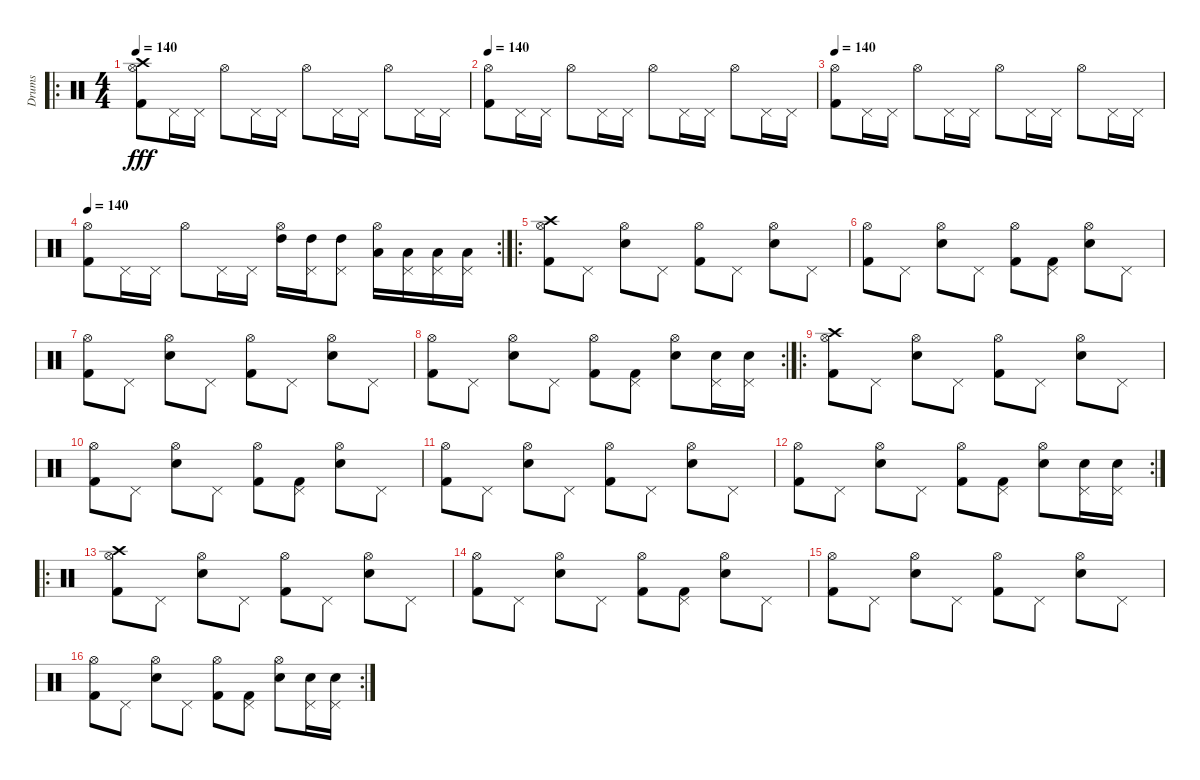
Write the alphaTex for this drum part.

\track ("Drums" "Drums") {instrument percussion}
\staff {score}
\articulation defaults
\ro
\ts (4 4)
\tempo 140
\clef neutral
\ks c
("Hi-Hat (open)" "Kick (hit) 2" "Crash high (hit)").8{dy fff} "Pedal Hi-Hat (hit)".16 "Pedal Hi-Hat (hit)".16 "Hi-Hat (open)".8 "Pedal Hi-Hat (hit)".16 "Pedal Hi-Hat (hit)".16 "Hi-Hat (open)".8 "Pedal Hi-Hat (hit)".16 "Pedal Hi-Hat (hit)".16 "Hi-Hat (open)".8 "Pedal Hi-Hat (hit)".16 "Pedal Hi-Hat (hit)".16 |
\tempo 140
("Hi-Hat (open)" "Kick (hit) 2").8 "Pedal Hi-Hat (hit)".16 "Pedal Hi-Hat (hit)".16 "Hi-Hat (open)".8 "Pedal Hi-Hat (hit)".16 "Pedal Hi-Hat (hit)".16 "Hi-Hat (open)".8 "Pedal Hi-Hat (hit)".16 "Pedal Hi-Hat (hit)".16 "Hi-Hat (open)".8 "Pedal Hi-Hat (hit)".16 "Pedal Hi-Hat (hit)".16 |
\tempo 140
("Hi-Hat (open)" "Kick (hit) 2").8 "Pedal Hi-Hat (hit)".16 "Pedal Hi-Hat (hit)".16 "Hi-Hat (open)".8 "Pedal Hi-Hat (hit)".16 "Pedal Hi-Hat (hit)".16 "Hi-Hat (open)".8 "Pedal Hi-Hat (hit)".16 "Pedal Hi-Hat (hit)".16 "Hi-Hat (open)".8 "Pedal Hi-Hat (hit)".16 "Pedal Hi-Hat (hit)".16 |
\rc 2
\tempo 140
("Hi-Hat (open)" "Kick (hit) 2").8 "Pedal Hi-Hat (hit)".16 "Pedal Hi-Hat (hit)".16 "Hi-Hat (open)".8 "Pedal Hi-Hat (hit)".16 "Pedal Hi-Hat (hit)".16 ("Hi-Hat (open)" "High Tom (hit)").16 ("Pedal Hi-Hat (hit)" "High Tom (hit)").16 ("Pedal Hi-Hat (hit)" "High Tom (hit)").8 ("Hi-Hat (open)" "Low Tom (hit)").16 ("Pedal Hi-Hat (hit)" "Low Tom (hit)").16 ("Pedal Hi-Hat (hit)" "Low Tom (hit)").16 ("Pedal Hi-Hat (hit)" "Low Tom (hit)").16 |
\ro
("Hi-Hat (open)" "Kick (hit) 2" "Crash high (hit)").8 "Pedal Hi-Hat (hit)".8 ("Hi-Hat (open)" "Snare (hit) 2").8 "Pedal Hi-Hat (hit)".8 ("Hi-Hat (open)" "Kick (hit) 2").8 "Pedal Hi-Hat (hit)".8 ("Hi-Hat (open)" "Snare (hit) 2").8 "Pedal Hi-Hat (hit)".8 |
("Hi-Hat (open)" "Kick (hit) 2").8 "Pedal Hi-Hat (hit)".8 ("Hi-Hat (open)" "Snare (hit) 2").8 "Pedal Hi-Hat (hit)".8 ("Hi-Hat (open)" "Kick (hit) 2").8 ("Pedal Hi-Hat (hit)" "Kick (hit) 2").8 ("Hi-Hat (open)" "Snare (hit) 2").8 "Pedal Hi-Hat (hit)".8 |
("Hi-Hat (open)" "Kick (hit) 2").8 "Pedal Hi-Hat (hit)".8 ("Hi-Hat (open)" "Snare (hit) 2").8 "Pedal Hi-Hat (hit)".8 ("Hi-Hat (open)" "Kick (hit) 2").8 "Pedal Hi-Hat (hit)".8 ("Hi-Hat (open)" "Snare (hit) 2").8 "Pedal Hi-Hat (hit)".8 |
\rc 2
("Hi-Hat (open)" "Kick (hit) 2").8 "Pedal Hi-Hat (hit)".8 ("Hi-Hat (open)" "Snare (hit) 2").8 "Pedal Hi-Hat (hit)".8 ("Hi-Hat (open)" "Kick (hit) 2").8 ("Pedal Hi-Hat (hit)" "Kick (hit) 2").8 ("Hi-Hat (open)" "Snare (hit) 2").8 ("Pedal Hi-Hat (hit)" "Snare (hit) 2").16 ("Pedal Hi-Hat (hit)" "Snare (hit) 2").16 |
\ro
("Hi-Hat (open)" "Kick (hit) 2" "Crash high (hit)").8 "Pedal Hi-Hat (hit)".8 ("Hi-Hat (open)" "Snare (hit) 2").8 "Pedal Hi-Hat (hit)".8 ("Hi-Hat (open)" "Kick (hit) 2").8 "Pedal Hi-Hat (hit)".8 ("Hi-Hat (open)" "Snare (hit) 2").8 "Pedal Hi-Hat (hit)".8 |
("Hi-Hat (open)" "Kick (hit) 2").8 "Pedal Hi-Hat (hit)".8 ("Hi-Hat (open)" "Snare (hit) 2").8 "Pedal Hi-Hat (hit)".8 ("Hi-Hat (open)" "Kick (hit) 2").8 ("Pedal Hi-Hat (hit)" "Kick (hit) 2").8 ("Hi-Hat (open)" "Snare (hit) 2").8 "Pedal Hi-Hat (hit)".8 |
("Hi-Hat (open)" "Kick (hit) 2").8 "Pedal Hi-Hat (hit)".8 ("Hi-Hat (open)" "Snare (hit) 2").8 "Pedal Hi-Hat (hit)".8 ("Hi-Hat (open)" "Kick (hit) 2").8 "Pedal Hi-Hat (hit)".8 ("Hi-Hat (open)" "Snare (hit) 2").8 "Pedal Hi-Hat (hit)".8 |
\rc 2
("Hi-Hat (open)" "Kick (hit) 2").8 "Pedal Hi-Hat (hit)".8 ("Hi-Hat (open)" "Snare (hit) 2").8 "Pedal Hi-Hat (hit)".8 ("Hi-Hat (open)" "Kick (hit) 2").8 ("Pedal Hi-Hat (hit)" "Kick (hit) 2").8 ("Hi-Hat (open)" "Snare (hit) 2").8 ("Pedal Hi-Hat (hit)" "Snare (hit) 2").16 ("Pedal Hi-Hat (hit)" "Snare (hit) 2").16 |
\ro
("Hi-Hat (open)" "Kick (hit) 2" "Crash high (hit)").8 "Pedal Hi-Hat (hit)".8 ("Hi-Hat (open)" "Snare (hit) 2").8 "Pedal Hi-Hat (hit)".8 ("Hi-Hat (open)" "Kick (hit) 2").8 "Pedal Hi-Hat (hit)".8 ("Hi-Hat (open)" "Snare (hit) 2").8 "Pedal Hi-Hat (hit)".8 |
("Hi-Hat (open)" "Kick (hit) 2").8 "Pedal Hi-Hat (hit)".8 ("Hi-Hat (open)" "Snare (hit) 2").8 "Pedal Hi-Hat (hit)".8 ("Hi-Hat (open)" "Kick (hit) 2").8 ("Pedal Hi-Hat (hit)" "Kick (hit) 2").8 ("Hi-Hat (open)" "Snare (hit) 2").8 "Pedal Hi-Hat (hit)".8 |
("Hi-Hat (open)" "Kick (hit) 2").8 "Pedal Hi-Hat (hit)".8 ("Hi-Hat (open)" "Snare (hit) 2").8 "Pedal Hi-Hat (hit)".8 ("Hi-Hat (open)" "Kick (hit) 2").8 "Pedal Hi-Hat (hit)".8 ("Hi-Hat (open)" "Snare (hit) 2").8 "Pedal Hi-Hat (hit)".8 |
\rc 2
("Hi-Hat (open)" "Kick (hit) 2").8 "Pedal Hi-Hat (hit)".8 ("Hi-Hat (open)" "Snare (hit) 2").8 "Pedal Hi-Hat (hit)".8 ("Hi-Hat (open)" "Kick (hit) 2").8 ("Pedal Hi-Hat (hit)" "Kick (hit) 2").8 ("Hi-Hat (open)" "Snare (hit) 2").8 ("Pedal Hi-Hat (hit)" "Snare (hit) 2").16 ("Pedal Hi-Hat (hit)" "Snare (hit) 2").16
